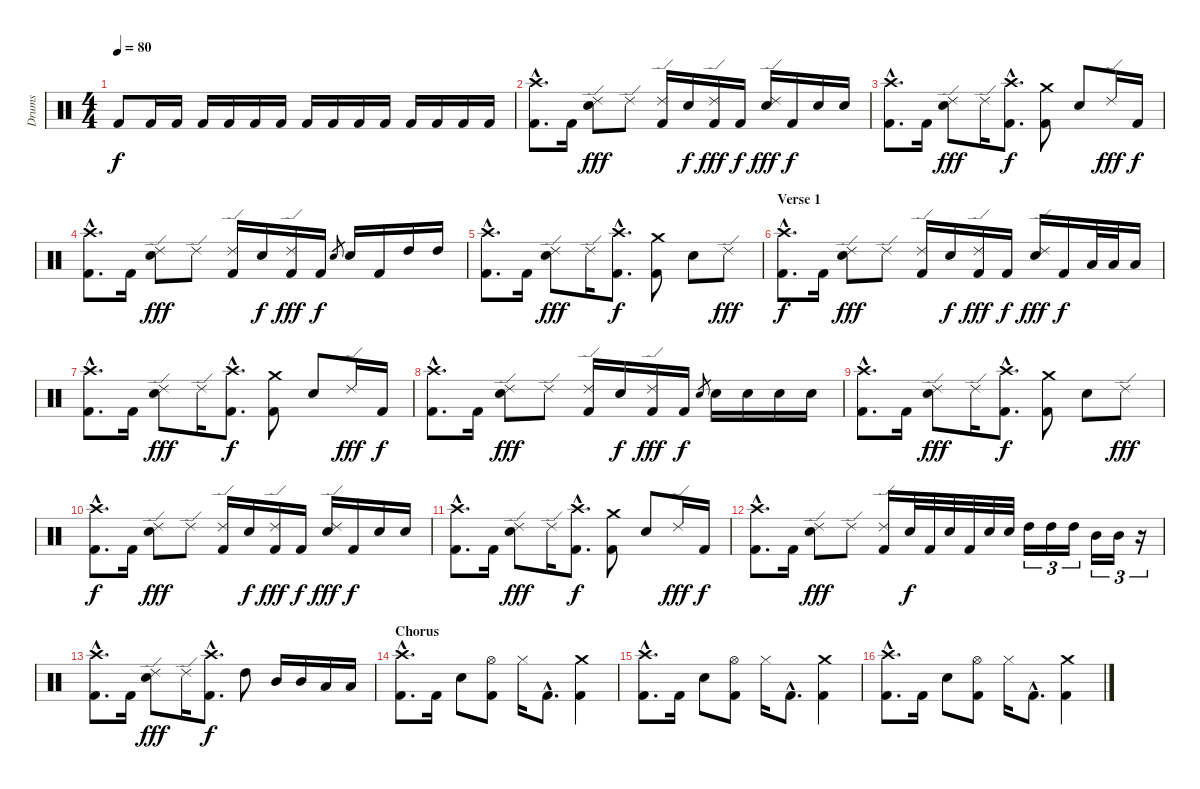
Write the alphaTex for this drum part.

\track ("Drums" "Drums") {instrument percussion}
\staff {score}
\articulation defaults
\ts (4 4)
\tempo 80
\clef neutral
\ks c "Kick (hit) 2".8{dy f volume 5} "Kick (hit) 2".16{volume 13} "Kick (hit) 2".16 "Kick (hit) 2".16 "Kick (hit) 2".16 "Kick (hit) 2".16 "Kick (hit) 2".16 "Kick (hit) 2".16 "Kick (hit) 2".16 "Kick (hit) 2".16 "Kick (hit) 2".16 "Kick (hit) 2".16 "Kick (hit) 2".16 "Kick (hit) 2".16 "Kick (hit) 2".16
|
("Crash high (hit)"{hac} "Kick (hit) 2"{hac}).8{d} "Kick (hit) 2".16 ("Ride (edge) 2" "Snare (hit) 2").8{dy fff} "Ride (edge) 2".8 ("Ride (edge) 2" "Kick (hit) 2").16 "Snare (hit) 2".16{dy f} ("Ride (edge) 2" "Kick (hit) 2").16{dy fff} "Kick (hit) 2".16{dy f} ("Ride (edge) 2" "Snare (hit) 2").16{dy fff} "Kick (hit) 2".16{dy f} "Snare (hit) 2".16 "Snare (hit) 2".16 |
("Crash high (hit)"{hac} "Kick (hit) 2"{hac}).8{d} "Kick (hit) 2".16 ("Ride (edge) 2" "Snare (hit) 2").8{dy fff} "Ride (edge) 2".16 ("Crash high (hit)"{hac} "Kick (hit) 2"{hac}).8{d dy f} ("Crash medium (hit)" "Kick (hit) 2").8 "Snare (hit) 2".8 "Ride (edge) 2".16{dy fff} "Kick (hit) 2".16{dy f} |
("Crash high (hit)"{hac} "Kick (hit) 2"{hac}).8{d} "Kick (hit) 2".16 ("Ride (edge) 2" "Snare (hit) 2").8{dy fff} "Ride (edge) 2".8 ("Ride (edge) 2" "Kick (hit) 2").16 "Snare (hit) 2".16{dy f} ("Ride (edge) 2" "Kick (hit) 2").16{dy fff} "Kick (hit) 2".16{dy f} "Snare (hit) 2".8{gr} "Snare (hit) 2".16 "Kick (hit) 2".16 "High Tom (hit)".16 "High Tom (hit)".16 |
("Crash high (hit)"{hac} "Kick (hit) 2"{hac}).8{d} "Kick (hit) 2".16 ("Ride (edge) 2" "Snare (hit) 2").8{dy fff} "Ride (edge) 2".16 ("Crash high (hit)"{hac} "Kick (hit) 2"{hac}).8{d dy f} ("Crash medium (hit)" "Kick (hit) 2").8 "Snare (hit) 2".8 "Ride (edge) 2".8{dy fff} |
\section ("" "Verse 1")
("Crash high (hit)"{hac} "Kick (hit) 2"{hac}).8{d dy f} "Kick (hit) 2".16 ("Ride (edge) 2" "Snare (hit) 2").8{dy fff} "Ride (edge) 2".8 ("Ride (edge) 2" "Kick (hit) 2").16 "Snare (hit) 2".16{dy f} ("Ride (edge) 2" "Kick (hit) 2").16{dy fff} "Kick (hit) 2".16{dy f} ("Ride (edge) 2" "Snare (hit) 2").16{dy fff} "Kick (hit) 2".16{dy f} "Low Tom (hit)".32 "Low Tom (hit)".32 "Low Tom (hit)".16 |
("Crash high (hit)"{hac} "Kick (hit) 2"{hac}).8{d} "Kick (hit) 2".16 ("Ride (edge) 2" "Snare (hit) 2").8{dy fff} "Ride (edge) 2".16 ("Crash high (hit)"{hac} "Kick (hit) 2"{hac}).8{d dy f} ("Crash medium (hit)" "Kick (hit) 2").8 "Snare (hit) 2".8 "Ride (edge) 2".16{dy fff} "Kick (hit) 2".16{dy f} |
("Crash high (hit)"{hac} "Kick (hit) 2"{hac}).8{d} "Kick (hit) 2".16 ("Ride (edge) 2" "Snare (hit) 2").8{dy fff} "Ride (edge) 2".8 ("Ride (edge) 2" "Kick (hit) 2").16 "Snare (hit) 2".16{dy f} ("Ride (edge) 2" "Kick (hit) 2").16{dy fff} "Kick (hit) 2".16{dy f} "Snare (hit) 2".8{gr} "Snare (hit) 2".16 "Snare (hit) 2".16 "Snare (hit) 2".16 "Snare (hit) 2".16 |
("Crash high (hit)"{hac} "Kick (hit) 2"{hac}).8{d} "Kick (hit) 2".16 ("Ride (edge) 2" "Snare (hit) 2").8{dy fff} "Ride (edge) 2".16 ("Crash high (hit)"{hac} "Kick (hit) 2"{hac}).8{d dy f} ("Crash medium (hit)" "Kick (hit) 2").8 "Snare (hit) 2".8 "Ride (edge) 2".8{dy fff} |
("Crash high (hit)"{hac} "Kick (hit) 2"{hac}).8{d dy f} "Kick (hit) 2".16 ("Ride (edge) 2" "Snare (hit) 2").8{dy fff} "Ride (edge) 2".8 ("Ride (edge) 2" "Kick (hit) 2").16 "Snare (hit) 2".16{dy f} ("Ride (edge) 2" "Kick (hit) 2").16{dy fff} "Kick (hit) 2".16{dy f} ("Ride (edge) 2" "Snare (hit) 2").16{dy fff} "Kick (hit) 2".16{dy f} "Snare (hit) 2".16 "Snare (hit) 2".16 |
("Crash high (hit)"{hac} "Kick (hit) 2"{hac}).8{d} "Kick (hit) 2".16 ("Ride (edge) 2" "Snare (hit) 2").8{dy fff} "Ride (edge) 2".16 ("Crash high (hit)"{hac} "Kick (hit) 2"{hac}).8{d dy f} ("Crash medium (hit)" "Kick (hit) 2").8 "Snare (hit) 2".8 "Ride (edge) 2".16{dy fff} "Kick (hit) 2".16{dy f} |
("Crash high (hit)"{hac} "Kick (hit) 2"{hac}).8{d} "Kick (hit) 2".16 ("Ride (edge) 2" "Snare (hit) 2").8{dy fff} "Ride (edge) 2".8 ("Ride (edge) 2" "Kick (hit) 2").16 "Snare (hit) 2".32{dy f} "Kick (hit) 2".32 "Snare (hit) 2".32 "Kick (hit) 2".32 "Snare (hit) 2".32 "Snare (hit) 2".32 "High Tom (hit)".16{tu (3 2)} "High Tom (hit)".16{tu (3 2)} "High Tom (hit)".16{tu (3 2)} "Mid Tom (hit)".16{tu (3 2)} "Mid Tom (hit)".16{tu (3 2)} r.16{tu (3 2)} |
("Crash high (hit)"{hac} "Kick (hit) 2"{hac}).8{d} "Kick (hit) 2".16 ("Ride (edge) 2" "Snare (hit) 2").8{dy fff} "Ride (edge) 2".16 ("Crash high (hit)"{hac} "Kick (hit) 2"{hac}).8{d dy f} "High Tom (hit)".8 "Mid Tom (hit)".16 "Mid Tom (hit)".16 "Low Tom (hit)".16 "Low Tom (hit)".16 |
\section ("" "Chorus")
("Crash high (hit)"{hac} "Kick (hit) 2"{hac}).8{d} "Kick (hit) 2".16 "Snare (hit) 2".8 ("Hi-Hat (open)" "Kick (hit) 2").8 "Hi-Hat (closed)".16 "Kick (hit) 2"{hac}.8{d} ("Crash medium (hit)" "Kick (hit) 2").4 |
("Crash high (hit)"{hac} "Kick (hit) 2"{hac}).8{d} "Kick (hit) 2".16 "Snare (hit) 2".8 ("Hi-Hat (open)" "Kick (hit) 2").8 "Hi-Hat (closed)".16 "Kick (hit) 2"{hac}.8{d} ("Crash medium (hit)" "Kick (hit) 2").4 |
("Crash high (hit)"{hac} "Kick (hit) 2"{hac}).8{d} "Kick (hit) 2".16 "Snare (hit) 2".8 ("Hi-Hat (open)" "Kick (hit) 2").8 "Hi-Hat (closed)".16 "Kick (hit) 2"{hac}.8{d} ("Crash medium (hit)" "Kick (hit) 2").4
